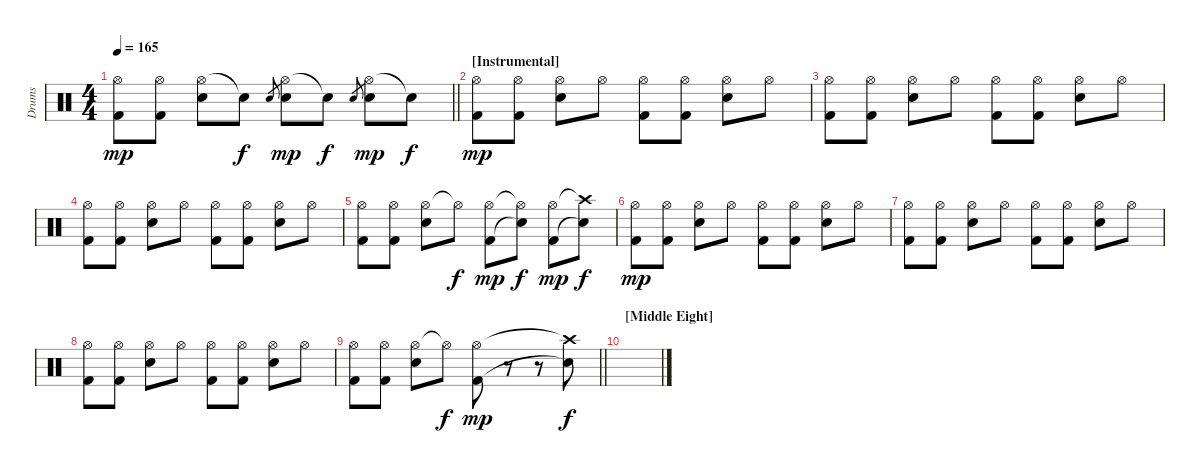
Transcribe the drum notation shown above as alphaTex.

\track ("Drums" "Drums") {instrument percussion}
\staff {score}
\articulation defaults
\ts (4 4)
\tempo 165
\clef neutral
\barLineRight lightlight
\ks c
("Hi-Hat (open)" "Kick (hit) 2").8{dy mp} ("Hi-Hat (open)" "Kick (hit) 2").8 ("Hi-Hat (open)" "Electric Snare (hit)").8 "Snare (hit)"{t}.8{dy f} "Electric Snare (hit)".8{gr} ("Hi-Hat (open)" "Electric Snare (hit)").8{dy mp} "Snare (hit)"{t}.8{dy f} "Electric Snare (hit)".8{gr} ("Hi-Hat (open)" "Electric Snare (hit)").8{dy mp} "Snare (hit)"{t}.8{dy f} |
\section ("" "[Instrumental]")
("Hi-Hat (open)" "Kick (hit) 2").8{dy mp} ("Hi-Hat (open)" "Kick (hit) 2").8 ("Hi-Hat (open)" "Electric Snare (hit)").8 "Hi-Hat (open)".8 ("Hi-Hat (open)" "Kick (hit) 2").8 ("Hi-Hat (open)" "Kick (hit) 2").8 ("Hi-Hat (open)" "Electric Snare (hit)").8 "Hi-Hat (open)".8 |
("Hi-Hat (open)" "Kick (hit) 2").8 ("Hi-Hat (open)" "Kick (hit) 2").8 ("Hi-Hat (open)" "Electric Snare (hit)").8 "Hi-Hat (open)".8 ("Hi-Hat (open)" "Kick (hit) 2").8 ("Hi-Hat (open)" "Kick (hit) 2").8 ("Hi-Hat (open)" "Electric Snare (hit)").8 "Hi-Hat (open)".8 |
("Hi-Hat (open)" "Kick (hit) 2").8 ("Hi-Hat (open)" "Kick (hit) 2").8 ("Hi-Hat (open)" "Electric Snare (hit)").8 "Hi-Hat (open)".8 ("Hi-Hat (open)" "Kick (hit) 2").8 ("Hi-Hat (open)" "Kick (hit) 2").8 ("Hi-Hat (open)" "Electric Snare (hit)").8 "Hi-Hat (open)".8 |
("Hi-Hat (open)" "Kick (hit) 2").8 ("Hi-Hat (open)" "Kick (hit) 2").8 ("Hi-Hat (open)" "Electric Snare (hit)").8 "Hi-Hat (open)"{t}.8{dy f} ("Hi-Hat (open)" "Kick (hit) 2").8{dy mp} ("Hi-Hat (open)"{t} "Snare (hit)"{t}).8{dy f} ("Hi-Hat (open)" "Kick (hit) 2").8{dy mp} ("Crash high (hit)"{t} "Snare (hit)"{t}).8{dy f} |
("Hi-Hat (open)" "Kick (hit) 2").8{dy mp} ("Hi-Hat (open)" "Kick (hit) 2").8 ("Hi-Hat (open)" "Electric Snare (hit)").8 "Hi-Hat (open)".8 ("Hi-Hat (open)" "Kick (hit) 2").8 ("Hi-Hat (open)" "Kick (hit) 2").8 ("Hi-Hat (open)" "Electric Snare (hit)").8 "Hi-Hat (open)".8 |
("Hi-Hat (open)" "Kick (hit) 2").8 ("Hi-Hat (open)" "Kick (hit) 2").8 ("Hi-Hat (open)" "Electric Snare (hit)").8 "Hi-Hat (open)".8 ("Hi-Hat (open)" "Kick (hit) 2").8 ("Hi-Hat (open)" "Kick (hit) 2").8 ("Hi-Hat (open)" "Electric Snare (hit)").8 "Hi-Hat (open)".8 |
("Hi-Hat (open)" "Kick (hit) 2").8 ("Hi-Hat (open)" "Kick (hit) 2").8 ("Hi-Hat (open)" "Electric Snare (hit)").8 "Hi-Hat (open)".8 ("Hi-Hat (open)" "Kick (hit) 2").8 ("Hi-Hat (open)" "Kick (hit) 2").8 ("Hi-Hat (open)" "Electric Snare (hit)").8 "Hi-Hat (open)".8 |
\barLineRight lightlight
("Hi-Hat (open)" "Kick (hit) 2").8 ("Hi-Hat (open)" "Kick (hit) 2").8 ("Hi-Hat (open)" "Electric Snare (hit)").8 "Hi-Hat (open)"{t}.8{dy f} ("Hi-Hat (open)" "Kick (hit) 2").8{dy mp} r.8 r.8 ("Crash high (hit)"{t} "Snare (hit)"{t}).8{dy f} |
\section ("" "[Middle Eight]")
